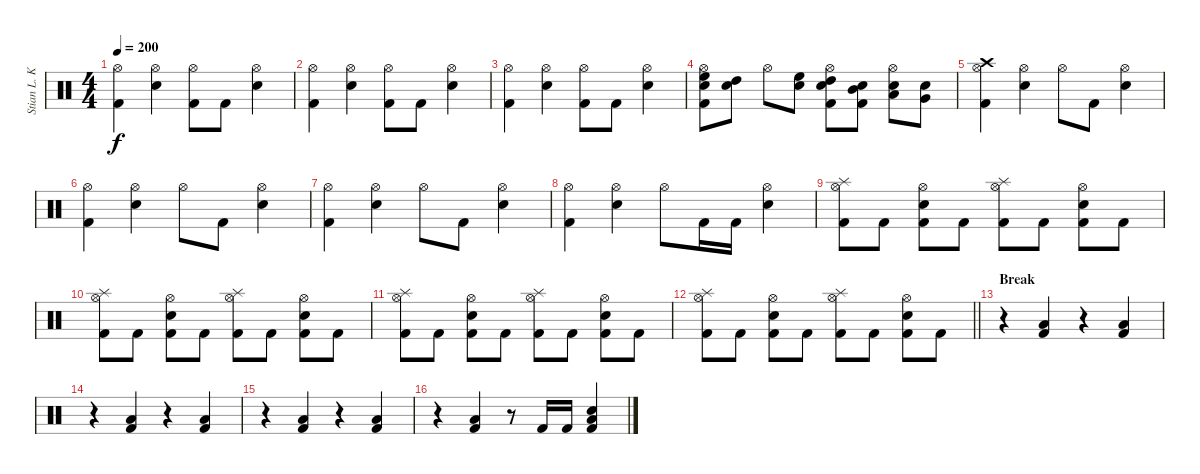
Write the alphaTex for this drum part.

\track ("Stian L. Kristoffersen - Drums" "Stian L. K") {instrument percussion}
\staff {score}
\articulation defaults
\ts (4 4)
\tempo 200
\clef neutral
\ks c
("Hi-Hat (open)" "Kick (hit) 2").4{dy f} ("Hi-Hat (open)" "Electric Snare (hit)").4 ("Hi-Hat (open)" "Kick (hit) 2").8 "Kick (hit) 2".8 ("Hi-Hat (open)" "Electric Snare (hit)").4 |
("Hi-Hat (open)" "Kick (hit) 2").4 ("Hi-Hat (open)" "Electric Snare (hit)").4 ("Hi-Hat (open)" "Kick (hit) 2").8 "Kick (hit) 2".8 ("Hi-Hat (open)" "Electric Snare (hit)").4 |
("Hi-Hat (open)" "Kick (hit) 2").4 ("Hi-Hat (open)" "Electric Snare (hit)").4 ("Hi-Hat (open)" "Kick (hit) 2").8 "Kick (hit) 2".8 ("Hi-Hat (open)" "Electric Snare (hit)").4 |
("Hi-Hat (open)" "Electric Snare (hit)" "High Floor Tom (hit)" "Kick (hit) 2").8 ("Electric Snare (hit)" "High Tom (hit)").8 "Hi-Hat (open)".8 ("Electric Snare (hit)" "High Floor Tom (hit)").8 ("Hi-Hat (open)" "Electric Snare (hit)" "High Tom (hit)" "Kick (hit) 2").8 ("Electric Snare (hit)" "Mid Tom (hit)" "Kick (hit) 2").8 ("Hi-Hat (open)" "Electric Snare (hit)" "Low Tom (hit)").8 ("Electric Snare (hit)" "Very Low Tom (hit)").8 |
("Crash high (hit)" "Hi-Hat (open)" "Kick (hit) 2").4 ("Hi-Hat (open)" "Electric Snare (hit)").4 "Hi-Hat (open)".8 "Kick (hit) 2".8 ("Hi-Hat (open)" "Electric Snare (hit)").4 |
("Hi-Hat (open)" "Kick (hit) 2").4 ("Hi-Hat (open)" "Electric Snare (hit)").4 "Hi-Hat (open)".8 "Kick (hit) 2".8 ("Hi-Hat (open)" "Electric Snare (hit)").4 |
("Hi-Hat (open)" "Kick (hit) 2").4 ("Hi-Hat (open)" "Electric Snare (hit)").4 "Hi-Hat (open)".8 "Kick (hit) 2".8 ("Hi-Hat (open)" "Electric Snare (hit)").4 |
("Hi-Hat (open)" "Kick (hit) 2").4 ("Hi-Hat (open)" "Electric Snare (hit)").4 "Hi-Hat (open)".8 "Kick (hit) 2".16 "Kick (hit) 2".16 ("Hi-Hat (open)" "Electric Snare (hit)").4 |
("Splash (hit)" "Hi-Hat (open)" "Kick (hit) 2").8 "Kick (hit) 2".8 ("Hi-Hat (open)" "Electric Snare (hit)" "Kick (hit) 2").8 "Kick (hit) 2".8 ("Splash (hit)" "Hi-Hat (open)" "Kick (hit) 2").8 "Kick (hit) 2".8 ("Hi-Hat (open)" "Electric Snare (hit)" "Kick (hit) 2").8 "Kick (hit) 2".8 |
("Splash (hit)" "Hi-Hat (open)" "Kick (hit) 2").8 "Kick (hit) 2".8 ("Hi-Hat (open)" "Electric Snare (hit)" "Kick (hit) 2").8 "Kick (hit) 2".8 ("Splash (hit)" "Hi-Hat (open)" "Kick (hit) 2").8 "Kick (hit) 2".8 ("Hi-Hat (open)" "Electric Snare (hit)" "Kick (hit) 2").8 "Kick (hit) 2".8 |
("Splash (hit)" "Hi-Hat (open)" "Kick (hit) 2").8 "Kick (hit) 2".8 ("Hi-Hat (open)" "Electric Snare (hit)" "Kick (hit) 2").8 "Kick (hit) 2".8 ("Splash (hit)" "Hi-Hat (open)" "Kick (hit) 2").8 "Kick (hit) 2".8 ("Hi-Hat (open)" "Electric Snare (hit)" "Kick (hit) 2").8 "Kick (hit) 2".8 |
\barLineRight lightlight
("Splash (hit)" "Hi-Hat (open)" "Kick (hit) 2").8 "Kick (hit) 2".8 ("Hi-Hat (open)" "Electric Snare (hit)" "Kick (hit) 2").8 "Kick (hit) 2".8 ("Splash (hit)" "Hi-Hat (open)" "Kick (hit) 2").8 "Kick (hit) 2".8 ("Hi-Hat (open)" "Electric Snare (hit)" "Kick (hit) 2").8 "Kick (hit) 2".8 |
\section ("" "Break")
r.4 ("Low Tom (hit)" "Kick (hit) 2").4 r.4 ("Low Tom (hit)" "Kick (hit) 2").4 |
r.4 ("Low Tom (hit)" "Kick (hit) 2").4 r.4 ("Low Tom (hit)" "Kick (hit) 2").4 |
r.4 ("Low Tom (hit)" "Kick (hit) 2").4 r.4 ("Low Tom (hit)" "Kick (hit) 2").4 |
r.4 ("Low Tom (hit)" "Kick (hit) 2").4 r.8 "Kick (hit) 2".16 "Kick (hit) 2".16 ("Electric Snare (hit)" "Low Tom (hit)" "Kick (hit) 2").4
